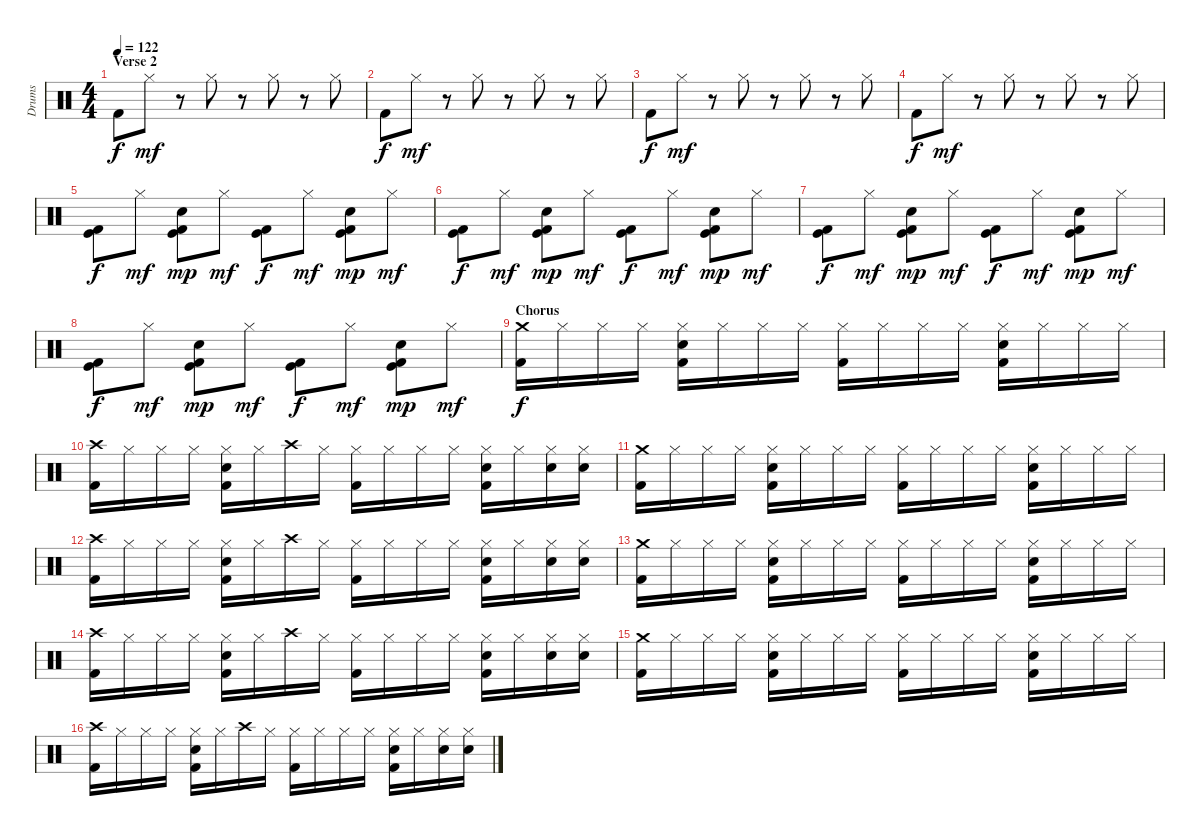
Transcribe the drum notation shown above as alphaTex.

\track ("Drums" "Drums") {instrument percussion}
\staff {score}
\articulation defaults
\ts (4 4)
\section ("" "Verse 2")
\tempo 122
\clef neutral
\ks c "Kick (hit) 2".8{dy f} "Hi-Hat (closed)".8{dy mf}
r.8 "Hi-Hat (closed)".8 r.8 "Hi-Hat (closed)".8 r.8 "Hi-Hat (closed)".8 |
"Kick (hit) 2".8{dy f} "Hi-Hat (closed)".8{dy mf} r.8 "Hi-Hat (closed)".8 r.8 "Hi-Hat (closed)".8 r.8 "Hi-Hat (closed)".8 |
"Kick (hit) 2".8{dy f} "Hi-Hat (closed)".8{dy mf} r.8 "Hi-Hat (closed)".8 r.8 "Hi-Hat (closed)".8 r.8 "Hi-Hat (closed)".8 |
"Kick (hit) 2".8{dy f} "Hi-Hat (closed)".8{dy mf} r.8 "Hi-Hat (closed)".8 r.8 "Hi-Hat (closed)".8 r.8 "Hi-Hat (closed)".8 |
("Kick (hit)" "Kick (hit) 2").8{dy f} "Hi-Hat (closed)".8{dy mf} ("Electric Snare (hit)" "Kick (hit)" "Kick (hit) 2").8{dy mp} "Hi-Hat (closed)".8{dy mf} ("Kick (hit)" "Kick (hit) 2").8{dy f} "Hi-Hat (closed)".8{dy mf} ("Electric Snare (hit)" "Kick (hit)" "Kick (hit) 2").8{dy mp} "Hi-Hat (closed)".8{dy mf} |
("Kick (hit)" "Kick (hit) 2").8{dy f} "Hi-Hat (closed)".8{dy mf} ("Electric Snare (hit)" "Kick (hit)" "Kick (hit) 2").8{dy mp} "Hi-Hat (closed)".8{dy mf} ("Kick (hit)" "Kick (hit) 2").8{dy f} "Hi-Hat (closed)".8{dy mf} ("Electric Snare (hit)" "Kick (hit)" "Kick (hit) 2").8{dy mp} "Hi-Hat (closed)".8{dy mf} |
("Kick (hit)" "Kick (hit) 2").8{dy f} "Hi-Hat (closed)".8{dy mf} ("Electric Snare (hit)" "Kick (hit)" "Kick (hit) 2").8{dy mp} "Hi-Hat (closed)".8{dy mf} ("Kick (hit)" "Kick (hit) 2").8{dy f} "Hi-Hat (closed)".8{dy mf} ("Electric Snare (hit)" "Kick (hit)" "Kick (hit) 2").8{dy mp} "Hi-Hat (closed)".8{dy mf} |
("Kick (hit)" "Kick (hit) 2").8{dy f} "Hi-Hat (closed)".8{dy mf} ("Electric Snare (hit)" "Kick (hit)" "Kick (hit) 2").8{dy mp} "Hi-Hat (closed)".8{dy mf} ("Kick (hit)" "Kick (hit) 2").8{dy f} "Hi-Hat (closed)".8{dy mf} ("Electric Snare (hit)" "Kick (hit)" "Kick (hit) 2").8{dy mp} "Hi-Hat (closed)".8{dy mf} |
\section ("" "Chorus")
("Crash medium (hit)" "Kick (hit) 2").16{dy f} "Hi-Hat (closed)".16 "Hi-Hat (closed)".16 "Hi-Hat (closed)".16 ("Hi-Hat (closed)" "Electric Snare (hit)" "Kick (hit) 2").16 "Hi-Hat (closed)".16 "Hi-Hat (closed)".16 "Hi-Hat (closed)".16 ("Hi-Hat (closed)" "Kick (hit) 2").16 "Hi-Hat (closed)".16 "Hi-Hat (closed)".16 "Hi-Hat (closed)".16 ("Hi-Hat (closed)" "Electric Snare (hit)" "Kick (hit) 2").16 "Hi-Hat (closed)".16 "Hi-Hat (closed)".16 "Hi-Hat (closed)".16 |
("Crash high (hit)" "Kick (hit) 2").16{balance 1} "Hi-Hat (closed)".16{balance 8} "Hi-Hat (closed)".16 "Hi-Hat (closed)".16 ("Hi-Hat (closed)" "Electric Snare (hit)" "Kick (hit) 2").16 "Hi-Hat (closed)".16 "Crash high (hit)".16{balance 0} "Hi-Hat (closed)".16{balance 8} ("Hi-Hat (closed)" "Kick (hit) 2").16 "Hi-Hat (closed)".16 "Hi-Hat (closed)".16 "Hi-Hat (closed)".16 ("Hi-Hat (closed)" "Electric Snare (hit)" "Kick (hit) 2").16 "Hi-Hat (closed)".16 ("Hi-Hat (closed)" "Electric Snare (hit)").16 ("Hi-Hat (closed)" "Electric Snare (hit)").16 |
("Crash medium (hit)" "Kick (hit) 2").16 "Hi-Hat (closed)".16 "Hi-Hat (closed)".16 "Hi-Hat (closed)".16 ("Hi-Hat (closed)" "Electric Snare (hit)" "Kick (hit) 2").16 "Hi-Hat (closed)".16 "Hi-Hat (closed)".16 "Hi-Hat (closed)".16 ("Hi-Hat (closed)" "Kick (hit) 2").16 "Hi-Hat (closed)".16 "Hi-Hat (closed)".16 "Hi-Hat (closed)".16 ("Hi-Hat (closed)" "Electric Snare (hit)" "Kick (hit) 2").16 "Hi-Hat (closed)".16 "Hi-Hat (closed)".16 "Hi-Hat (closed)".16 |
("Crash high (hit)" "Kick (hit) 2").16{balance 1} "Hi-Hat (closed)".16{balance 8} "Hi-Hat (closed)".16 "Hi-Hat (closed)".16 ("Hi-Hat (closed)" "Electric Snare (hit)" "Kick (hit) 2").16 "Hi-Hat (closed)".16 "Crash high (hit)".16{balance 0} "Hi-Hat (closed)".16{balance 8} ("Hi-Hat (closed)" "Kick (hit) 2").16 "Hi-Hat (closed)".16 "Hi-Hat (closed)".16 "Hi-Hat (closed)".16 ("Hi-Hat (closed)" "Electric Snare (hit)" "Kick (hit) 2").16 "Hi-Hat (closed)".16 ("Hi-Hat (closed)" "Electric Snare (hit)").16 ("Hi-Hat (closed)" "Electric Snare (hit)").16 |
("Crash medium (hit)" "Kick (hit) 2").16 "Hi-Hat (closed)".16 "Hi-Hat (closed)".16 "Hi-Hat (closed)".16 ("Hi-Hat (closed)" "Electric Snare (hit)" "Kick (hit) 2").16 "Hi-Hat (closed)".16 "Hi-Hat (closed)".16 "Hi-Hat (closed)".16 ("Hi-Hat (closed)" "Kick (hit) 2").16 "Hi-Hat (closed)".16 "Hi-Hat (closed)".16 "Hi-Hat (closed)".16 ("Hi-Hat (closed)" "Electric Snare (hit)" "Kick (hit) 2").16 "Hi-Hat (closed)".16 "Hi-Hat (closed)".16 "Hi-Hat (closed)".16 |
("Crash high (hit)" "Kick (hit) 2").16{balance 1} "Hi-Hat (closed)".16{balance 8} "Hi-Hat (closed)".16 "Hi-Hat (closed)".16 ("Hi-Hat (closed)" "Electric Snare (hit)" "Kick (hit) 2").16 "Hi-Hat (closed)".16 "Crash high (hit)".16{balance 0} "Hi-Hat (closed)".16{balance 8} ("Hi-Hat (closed)" "Kick (hit) 2").16 "Hi-Hat (closed)".16 "Hi-Hat (closed)".16 "Hi-Hat (closed)".16 ("Hi-Hat (closed)" "Electric Snare (hit)" "Kick (hit) 2").16 "Hi-Hat (closed)".16 ("Hi-Hat (closed)" "Electric Snare (hit)").16 ("Hi-Hat (closed)" "Electric Snare (hit)").16 |
("Crash medium (hit)" "Kick (hit) 2").16 "Hi-Hat (closed)".16 "Hi-Hat (closed)".16 "Hi-Hat (closed)".16 ("Hi-Hat (closed)" "Electric Snare (hit)" "Kick (hit) 2").16 "Hi-Hat (closed)".16 "Hi-Hat (closed)".16 "Hi-Hat (closed)".16 ("Hi-Hat (closed)" "Kick (hit) 2").16 "Hi-Hat (closed)".16 "Hi-Hat (closed)".16 "Hi-Hat (closed)".16 ("Hi-Hat (closed)" "Electric Snare (hit)" "Kick (hit) 2").16 "Hi-Hat (closed)".16 "Hi-Hat (closed)".16 "Hi-Hat (closed)".16 |
("Crash high (hit)" "Kick (hit) 2").16{balance 1} "Hi-Hat (closed)".16{balance 8} "Hi-Hat (closed)".16 "Hi-Hat (closed)".16 ("Hi-Hat (closed)" "Electric Snare (hit)" "Kick (hit) 2").16 "Hi-Hat (closed)".16 "Crash high (hit)".16{balance 0} "Hi-Hat (closed)".16{balance 8} ("Hi-Hat (closed)" "Kick (hit) 2").16 "Hi-Hat (closed)".16 "Hi-Hat (closed)".16 "Hi-Hat (closed)".16 ("Hi-Hat (closed)" "Electric Snare (hit)" "Kick (hit) 2").16 "Hi-Hat (closed)".16 ("Hi-Hat (closed)" "Electric Snare (hit)").16 ("Hi-Hat (closed)" "Electric Snare (hit)").16
